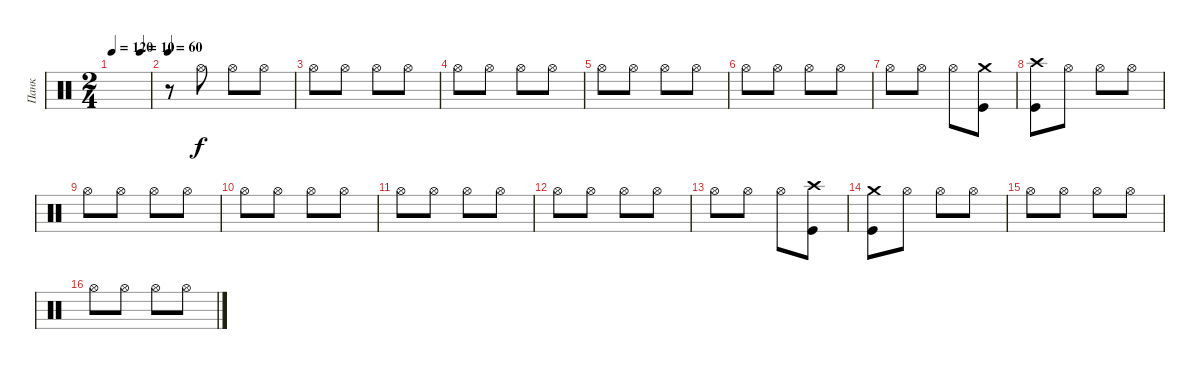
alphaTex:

\track ("Панк" "Панк") {instrument percussion}
\staff {score}
\articulation defaults
\ts (2 4)
\tempo 120
\tempo (10 0.75)
\clef neutral
\ks c
|
\tempo 60
r.8 "Hi-Hat (open)".8 "Hi-Hat (open)".8 "Hi-Hat (open)".8 |
"Hi-Hat (open)".8 "Hi-Hat (open)".8 "Hi-Hat (open)".8 "Hi-Hat (open)".8 |
"Hi-Hat (open)".8 "Hi-Hat (open)".8 "Hi-Hat (open)".8 "Hi-Hat (open)".8 |
"Hi-Hat (open)".8 "Hi-Hat (open)".8 "Hi-Hat (open)".8 "Hi-Hat (open)".8 |
"Hi-Hat (open)".8 "Hi-Hat (open)".8 "Hi-Hat (open)".8 "Hi-Hat (open)".8 |
"Hi-Hat (open)".8 "Hi-Hat (open)".8 "Hi-Hat (open)".8 ("Crash medium (hit)" "Kick (hit)").8 |
("Crash high (hit)" "Kick (hit)").8 "Hi-Hat (open)".8 "Hi-Hat (open)".8 "Hi-Hat (open)".8 |
"Hi-Hat (open)".8 "Hi-Hat (open)".8 "Hi-Hat (open)".8 "Hi-Hat (open)".8 |
"Hi-Hat (open)".8 "Hi-Hat (open)".8 "Hi-Hat (open)".8 "Hi-Hat (open)".8 |
"Hi-Hat (open)".8 "Hi-Hat (open)".8 "Hi-Hat (open)".8 "Hi-Hat (open)".8 |
"Hi-Hat (open)".8 "Hi-Hat (open)".8 "Hi-Hat (open)".8 "Hi-Hat (open)".8 |
"Hi-Hat (open)".8 "Hi-Hat (open)".8 "Hi-Hat (open)".8 ("Crash high (hit)" "Kick (hit)").8 |
("Crash medium (hit)" "Kick (hit)").8 "Hi-Hat (open)".8 "Hi-Hat (open)".8 "Hi-Hat (open)".8 |
"Hi-Hat (open)".8 "Hi-Hat (open)".8 "Hi-Hat (open)".8 "Hi-Hat (open)".8 |
"Hi-Hat (open)".8 "Hi-Hat (open)".8 "Hi-Hat (open)".8 "Hi-Hat (open)".8
